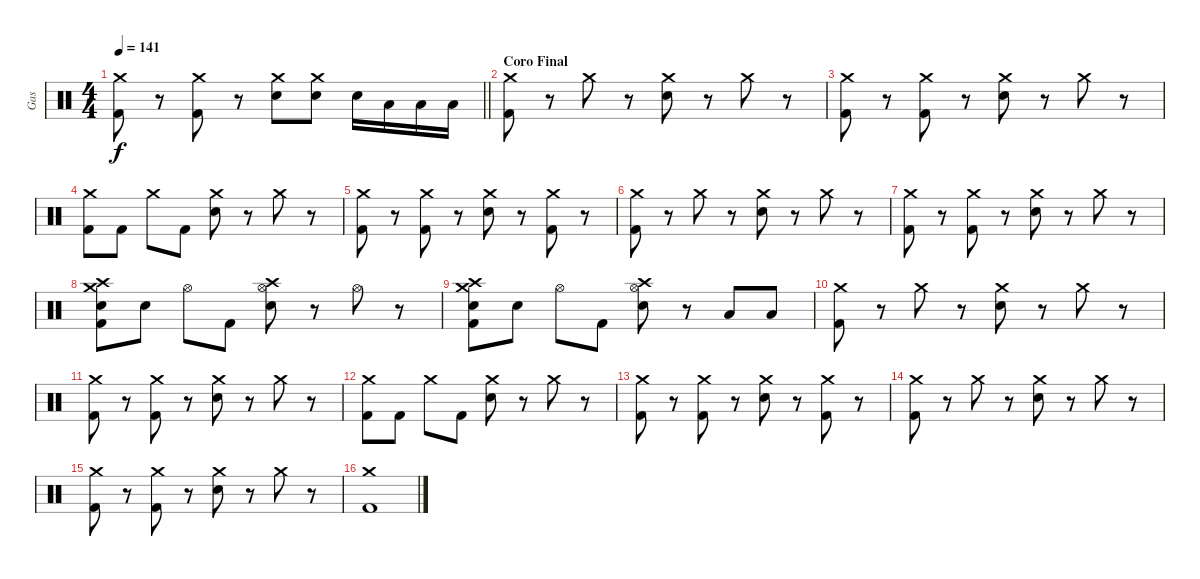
\track ("Gas" "Gas") {instrument percussion}
\staff {score}
\articulation defaults
\ts (4 4)
\tempo 141
\clef neutral
\barLineRight lightlight
\ks c
("Crash medium (hit)" "Kick (hit) 2").8{dy f} r.8 ("Crash medium (hit)" "Kick (hit) 2").8 r.8 ("Crash medium (hit)" "Electric Snare (hit)").8 ("Crash medium (hit)" "Electric Snare (hit)").8 "Electric Snare (hit)".16 "Low Tom (hit)".16 "Low Tom (hit)".16 "Low Tom (hit)".16 |
\section ("" "Coro Final")
("Crash medium (hit)" "Kick (hit) 2").8 r.8 "Crash medium (hit)".8 r.8 ("Crash medium (hit)" "Electric Snare (hit)").8 r.8 "Crash medium (hit)".8 r.8 |
("Crash medium (hit)" "Kick (hit) 2").8 r.8 ("Crash medium (hit)" "Kick (hit) 2").8 r.8 ("Crash medium (hit)" "Electric Snare (hit)").8 r.8 "Crash medium (hit)".8 r.8 |
("Crash medium (hit)" "Kick (hit) 2").8 "Kick (hit) 2".8 "Crash medium (hit)".8 "Kick (hit) 2".8 ("Crash medium (hit)" "Electric Snare (hit)").8 r.8 "Crash medium (hit)".8 r.8 |
("Crash medium (hit)" "Kick (hit) 2").8 r.8 ("Crash medium (hit)" "Kick (hit) 2").8 r.8 ("Crash medium (hit)" "Electric Snare (hit)").8 r.8 ("Crash medium (hit)" "Kick (hit) 2").8 r.8 |
("Crash medium (hit)" "Kick (hit) 2").8 r.8 "Crash medium (hit)".8 r.8 ("Crash medium (hit)" "Electric Snare (hit)").8 r.8 "Crash medium (hit)".8 r.8 |
("Crash medium (hit)" "Kick (hit) 2").8 r.8 ("Crash medium (hit)" "Kick (hit) 2").8 r.8 ("Crash medium (hit)" "Electric Snare (hit)").8 r.8 "Crash medium (hit)".8 r.8 |
("Crash high (hit)" "Crash medium (hit)" "Electric Snare (hit)" "Kick (hit) 2").8 "Electric Snare (hit)".8 "Hi-Hat (open)".8 "Kick (hit) 2".8 ("Crash high (hit)" "Hi-Hat (open)" "Electric Snare (hit)").8 r.8 "Hi-Hat (open)".8 r.8 |
("Crash high (hit)" "Crash medium (hit)" "Electric Snare (hit)" "Kick (hit) 2").8 "Electric Snare (hit)".8 "Hi-Hat (open)".8 "Kick (hit) 2".8 ("Crash high (hit)" "Hi-Hat (open)" "Electric Snare (hit)").8 r.8 "Low Tom (hit)".8 "Low Tom (hit)".8 |
("Crash medium (hit)" "Kick (hit) 2").8 r.8 "Crash medium (hit)".8 r.8 ("Crash medium (hit)" "Electric Snare (hit)").8 r.8 "Crash medium (hit)".8 r.8 |
("Crash medium (hit)" "Kick (hit) 2").8 r.8 ("Crash medium (hit)" "Kick (hit) 2").8 r.8 ("Crash medium (hit)" "Electric Snare (hit)").8 r.8 "Crash medium (hit)".8 r.8 |
("Crash medium (hit)" "Kick (hit) 2").8 "Kick (hit) 2".8 "Crash medium (hit)".8 "Kick (hit) 2".8 ("Crash medium (hit)" "Electric Snare (hit)").8 r.8 "Crash medium (hit)".8 r.8 |
("Crash medium (hit)" "Kick (hit) 2").8 r.8 ("Crash medium (hit)" "Kick (hit) 2").8 r.8 ("Crash medium (hit)" "Electric Snare (hit)").8 r.8 ("Crash medium (hit)" "Kick (hit) 2").8 r.8 |
("Crash medium (hit)" "Kick (hit) 2").8 r.8 "Crash medium (hit)".8 r.8 ("Crash medium (hit)" "Electric Snare (hit)").8 r.8 "Crash medium (hit)".8 r.8 |
("Crash medium (hit)" "Kick (hit) 2").8 r.8 ("Crash medium (hit)" "Kick (hit) 2").8 r.8 ("Crash medium (hit)" "Electric Snare (hit)").8 r.8 "Crash medium (hit)".8 r.8 |
("Crash medium (hit)" "Kick (hit) 2").1
